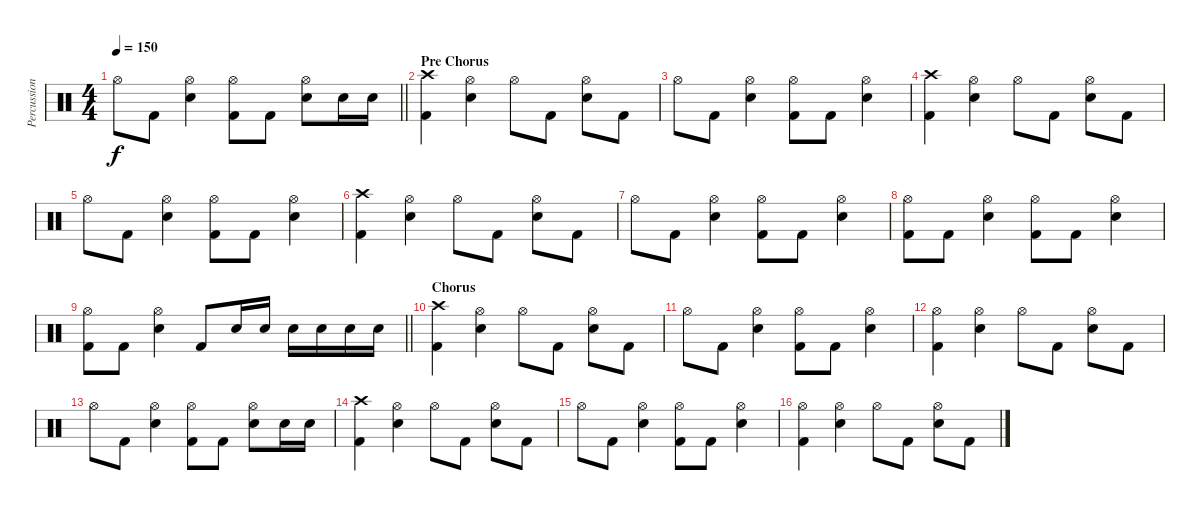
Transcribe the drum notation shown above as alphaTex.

\track ("Percussion" "Percussion") {instrument percussion}
\staff {score}
\articulation defaults
\ts (4 4)
\tempo 150
\clef neutral
\barLineRight lightlight
\ks c "Hi-Hat (open)".8{dy f} "Kick (hit) 2".8
("Hi-Hat (open)" "Electric Snare (hit)").4 ("Hi-Hat (open)" "Kick (hit) 2").8 "Kick (hit) 2".8 ("Hi-Hat (open)" "Electric Snare (hit)").8 "Electric Snare (hit)".16 "Electric Snare (hit)".16 |
\section ("" "Pre Chorus")
("Crash high (hit)" "Kick (hit) 2").4 ("Hi-Hat (open)" "Electric Snare (hit)").4 "Hi-Hat (open)".8 "Kick (hit) 2".8 ("Hi-Hat (open)" "Electric Snare (hit)").8 "Kick (hit) 2".8 |
"Hi-Hat (open)".8 "Kick (hit) 2".8 ("Hi-Hat (open)" "Electric Snare (hit)").4 ("Hi-Hat (open)" "Kick (hit) 2").8 "Kick (hit) 2".8 ("Hi-Hat (open)" "Electric Snare (hit)").4 |
("Crash high (hit)" "Kick (hit) 2").4 ("Hi-Hat (open)" "Electric Snare (hit)").4 "Hi-Hat (open)".8 "Kick (hit) 2".8 ("Hi-Hat (open)" "Electric Snare (hit)").8 "Kick (hit) 2".8 |
"Hi-Hat (open)".8 "Kick (hit) 2".8 ("Hi-Hat (open)" "Electric Snare (hit)").4 ("Hi-Hat (open)" "Kick (hit) 2").8 "Kick (hit) 2".8 ("Hi-Hat (open)" "Electric Snare (hit)").4 |
("Crash high (hit)" "Kick (hit) 2").4 ("Hi-Hat (open)" "Electric Snare (hit)").4 "Hi-Hat (open)".8 "Kick (hit) 2".8 ("Hi-Hat (open)" "Electric Snare (hit)").8 "Kick (hit) 2".8 |
"Hi-Hat (open)".8 "Kick (hit) 2".8 ("Hi-Hat (open)" "Electric Snare (hit)").4 ("Hi-Hat (open)" "Kick (hit) 2").8 "Kick (hit) 2".8 ("Hi-Hat (open)" "Electric Snare (hit)").4 |
("Hi-Hat (open)" "Kick (hit) 2").8 "Kick (hit) 2".8 ("Hi-Hat (open)" "Electric Snare (hit)").4 ("Hi-Hat (open)" "Kick (hit) 2").8 "Kick (hit) 2".8 ("Hi-Hat (open)" "Electric Snare (hit)").4 |
\barLineRight lightlight
("Hi-Hat (open)" "Kick (hit) 2").8 "Kick (hit) 2".8 ("Hi-Hat (open)" "Electric Snare (hit)").4 "Kick (hit) 2".8 "Electric Snare (hit)".16 "Electric Snare (hit)".16 "Electric Snare (hit)".16 "Electric Snare (hit)".16 "Electric Snare (hit)".16 "Electric Snare (hit)".16 |
\section ("" "Chorus")
("Crash high (hit)" "Kick (hit) 2").4{volume 13} ("Hi-Hat (open)" "Electric Snare (hit)").4 "Hi-Hat (open)".8 "Kick (hit) 2".8 ("Hi-Hat (open)" "Electric Snare (hit)").8 "Kick (hit) 2".8 |
"Hi-Hat (open)".8 "Kick (hit) 2".8 ("Hi-Hat (open)" "Electric Snare (hit)").4 ("Hi-Hat (open)" "Kick (hit) 2").8 "Kick (hit) 2".8 ("Hi-Hat (open)" "Electric Snare (hit)").4 |
("Hi-Hat (open)" "Kick (hit) 2").4 ("Hi-Hat (open)" "Electric Snare (hit)").4 "Hi-Hat (open)".8 "Kick (hit) 2".8 ("Hi-Hat (open)" "Electric Snare (hit)").8 "Kick (hit) 2".8 |
"Hi-Hat (open)".8 "Kick (hit) 2".8 ("Hi-Hat (open)" "Electric Snare (hit)").4 ("Hi-Hat (open)" "Kick (hit) 2").8 "Kick (hit) 2".8 ("Hi-Hat (open)" "Electric Snare (hit)").8 "Electric Snare (hit)".16 "Electric Snare (hit)".16 |
("Crash high (hit)" "Kick (hit) 2").4 ("Hi-Hat (open)" "Electric Snare (hit)").4 "Hi-Hat (open)".8 "Kick (hit) 2".8 ("Hi-Hat (open)" "Electric Snare (hit)").8 "Kick (hit) 2".8 |
"Hi-Hat (open)".8 "Kick (hit) 2".8 ("Hi-Hat (open)" "Electric Snare (hit)").4 ("Hi-Hat (open)" "Kick (hit) 2").8 "Kick (hit) 2".8 ("Hi-Hat (open)" "Electric Snare (hit)").4 |
("Hi-Hat (open)" "Kick (hit) 2").4 ("Hi-Hat (open)" "Electric Snare (hit)").4 "Hi-Hat (open)".8 "Kick (hit) 2".8 ("Hi-Hat (open)" "Electric Snare (hit)").8 "Kick (hit) 2".8
